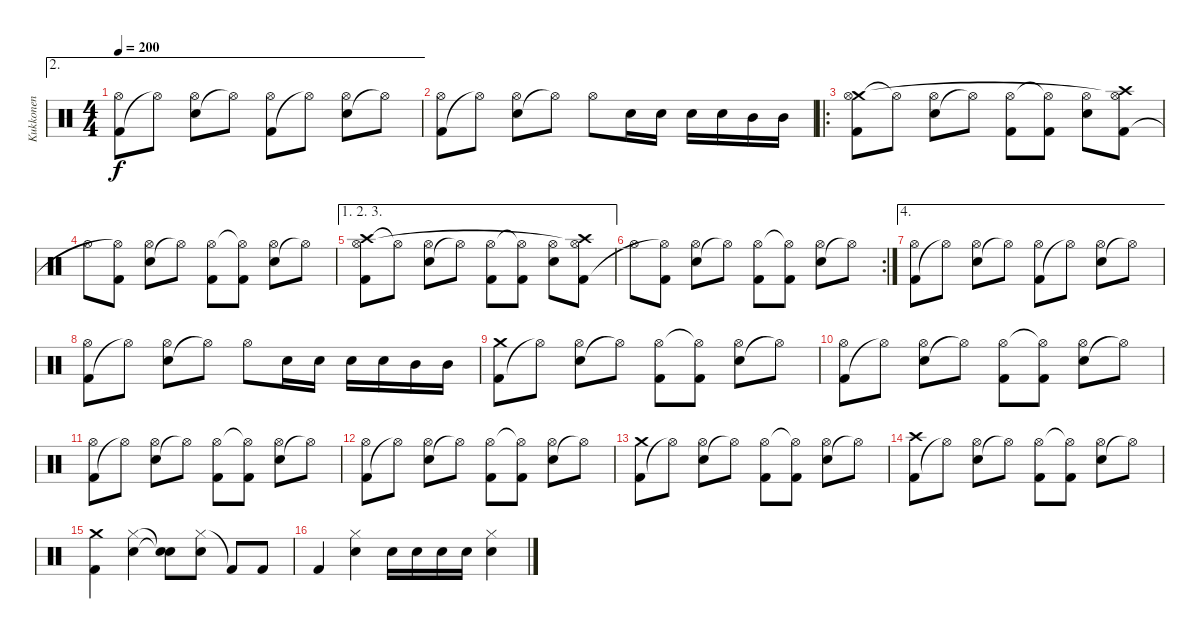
\track ("Kukkonen" "Kukkonen") {instrument percussion}
\staff {score}
\articulation defaults
\ae 2
\ts (4 4)
\tempo 200
\clef neutral
\ks c
("Kick (hit) 2" "Hi-Hat (open)").8{dy f} "Hi-Hat (open)"{t}.8 ("Electric Snare (hit)" "Hi-Hat (open)").8 "Hi-Hat (open)"{t}.8 ("Kick (hit) 2" "Hi-Hat (open)").8 "Hi-Hat (open)"{t}.8 ("Electric Snare (hit)" "Hi-Hat (open)").8 "Hi-Hat (open)"{t}.8 |
("Kick (hit) 2" "Hi-Hat (open)").8 "Hi-Hat (open)"{t}.8 ("Electric Snare (hit)" "Hi-Hat (open)").8 "Hi-Hat (open)"{t}.8 "Hi-Hat (open)".8 "Electric Snare (hit)".16 "Electric Snare (hit)".16 "Electric Snare (hit)".16 "Electric Snare (hit)".16 "Mid Tom (hit)".16 "Mid Tom (hit)".16 |
\ro
("Crash medium (hit)" "Kick (hit) 2" "Hi-Hat (open)").8 "Hi-Hat (open)"{t}.8 ("Electric Snare (hit)" "Hi-Hat (open)").8 "Hi-Hat (open)"{t}.8 ("Kick (hit) 2" "Hi-Hat (open)").8 ("Kick (hit) 2" "Hi-Hat (open)"{t}).8 ("Electric Snare (hit)" "Hi-Hat (open)").8 ("Crash high (hit)" "Kick (hit) 2" "Hi-Hat (open)"{t}).8 |
"Hi-Hat (open)".8 ("Kick (hit) 2" "Hi-Hat (open)"{t}).8 ("Electric Snare (hit)" "Hi-Hat (open)").8 "Hi-Hat (open)"{t}.8 ("Kick (hit) 2" "Hi-Hat (open)").8 ("Kick (hit) 2" "Hi-Hat (open)"{t}).8 ("Electric Snare (hit)" "Hi-Hat (open)").8 "Hi-Hat (open)"{t}.8 |
\ae (1 2 3)
("Crash high (hit)" "Kick (hit) 2" "Hi-Hat (open)").8 "Hi-Hat (open)"{t}.8 ("Electric Snare (hit)" "Hi-Hat (open)").8 "Hi-Hat (open)"{t}.8 ("Kick (hit) 2" "Hi-Hat (open)").8 ("Kick (hit) 2" "Hi-Hat (open)"{t}).8 ("Electric Snare (hit)" "Hi-Hat (open)").8 ("Crash high (hit)" "Kick (hit) 2" "Hi-Hat (open)"{t}).8 |
\rc 2 "Hi-Hat (open)".8
("Kick (hit) 2" "Hi-Hat (open)"{t}).8 ("Electric Snare (hit)" "Hi-Hat (open)").8 "Hi-Hat (open)"{t}.8 ("Kick (hit) 2" "Hi-Hat (open)").8 ("Kick (hit) 2" "Hi-Hat (open)"{t}).8 ("Electric Snare (hit)" "Hi-Hat (open)").8 "Hi-Hat (open)"{t}.8 |
\ae 4
("Kick (hit) 2" "Hi-Hat (open)").8 "Hi-Hat (open)"{t}.8 ("Electric Snare (hit)" "Hi-Hat (open)").8 "Hi-Hat (open)"{t}.8 ("Kick (hit) 2" "Hi-Hat (open)").8 "Hi-Hat (open)"{t}.8 ("Electric Snare (hit)" "Hi-Hat (open)").8 "Hi-Hat (open)"{t}.8 |
("Kick (hit) 2" "Hi-Hat (open)").8 "Hi-Hat (open)"{t}.8 ("Electric Snare (hit)" "Hi-Hat (open)").8 "Hi-Hat (open)"{t}.8 "Hi-Hat (open)".8 "Electric Snare (hit)".16 "Electric Snare (hit)".16 "Electric Snare (hit)".16 "Electric Snare (hit)".16 "Mid Tom (hit)".16 "Mid Tom (hit)".16 |
("Kick (hit) 2" "Crash medium (hit)").8 "Hi-Hat (open)"{t}.8 ("Electric Snare (hit)" "Hi-Hat (open)").8 "Hi-Hat (open)"{t}.8 ("Kick (hit) 2" "Hi-Hat (open)").8 ("Kick (hit) 2" "Hi-Hat (open)"{t}).8 ("Electric Snare (hit)" "Hi-Hat (open)").8 "Hi-Hat (open)"{t}.8 |
("Kick (hit) 2" "Hi-Hat (open)").8 "Hi-Hat (open)"{t}.8 ("Electric Snare (hit)" "Hi-Hat (open)").8 "Hi-Hat (open)"{t}.8 ("Kick (hit) 2" "Hi-Hat (open)").8 ("Kick (hit) 2" "Hi-Hat (open)"{t}).8 ("Electric Snare (hit)" "Hi-Hat (open)").8 "Hi-Hat (open)"{t}.8 |
("Kick (hit) 2" "Hi-Hat (open)").8 "Hi-Hat (open)"{t}.8 ("Electric Snare (hit)" "Hi-Hat (open)").8 "Hi-Hat (open)"{t}.8 ("Kick (hit) 2" "Hi-Hat (open)").8 ("Kick (hit) 2" "Hi-Hat (open)"{t}).8 ("Electric Snare (hit)" "Hi-Hat (open)").8 "Hi-Hat (open)"{t}.8 |
("Kick (hit) 2" "Hi-Hat (open)").8 "Hi-Hat (open)"{t}.8 ("Electric Snare (hit)" "Hi-Hat (open)").8 "Hi-Hat (open)"{t}.8 ("Kick (hit) 2" "Hi-Hat (open)").8 ("Kick (hit) 2" "Hi-Hat (open)"{t}).8 ("Electric Snare (hit)" "Hi-Hat (open)").8 "Hi-Hat (open)"{t}.8 |
("Kick (hit) 2" "Crash medium (hit)").8 "Hi-Hat (open)"{t}.8 ("Electric Snare (hit)" "Hi-Hat (open)").8 "Hi-Hat (open)"{t}.8 ("Kick (hit) 2" "Hi-Hat (open)").8 ("Kick (hit) 2" "Hi-Hat (open)"{t}).8 ("Electric Snare (hit)" "Hi-Hat (open)").8 "Hi-Hat (open)"{t}.8 |
("Kick (hit) 2" "Crash high (hit)").8 "Hi-Hat (open)"{t}.8 ("Electric Snare (hit)" "Hi-Hat (open)").8 "Hi-Hat (open)"{t}.8 ("Kick (hit) 2" "Hi-Hat (open)").8 ("Kick (hit) 2" "Hi-Hat (open)"{t}).8 ("Electric Snare (hit)" "Hi-Hat (open)").8 "Hi-Hat (open)"{t}.8 |
("Kick (hit) 2" "Crash medium (hit)").4 ("Hi-Hat (closed)" "Electric Snare (hit)").4 ("Snare (hit)"{t} "Snare (hit)"{t}).8 ("Hi-Hat (closed)" "Electric Snare (hit)").8 "Kick (hit) 2"{t}.8 "Kick (hit) 2".8 |
"Kick (hit) 2".4 ("Hi-Hat (closed)" "Electric Snare (hit)").4 "Electric Snare (hit)".16 "Electric Snare (hit)".16 "Electric Snare (hit)".16 "Electric Snare (hit)".16 ("Hi-Hat (closed)" "Electric Snare (hit)").4
